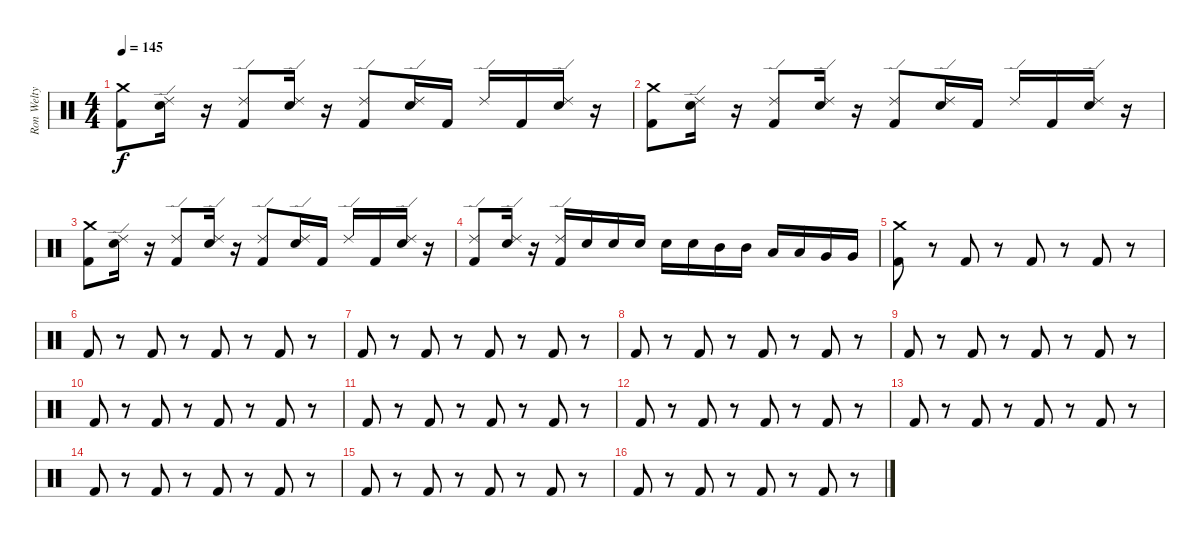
\track ("Ron Welty" "Ron Welty") {instrument percussion}
\staff {score}
\articulation defaults
\ts (4 4)
\tempo 145
\clef neutral
\ks c
("Kick (hit) 2" "Crash medium (hit)").8{dy f} ("Snare (hit) 2" "Ride (edge) 2").16 r.16 ("Kick (hit) 2" "Ride (edge) 2").8 ("Snare (hit) 2" "Ride (edge) 2").16 r.16 ("Kick (hit) 2" "Ride (edge) 2").8 ("Snare (hit) 2" "Ride (edge) 2").16 "Kick (hit) 2".16 "Ride (edge) 2".16 "Kick (hit) 2".16 ("Snare (hit) 2" "Ride (edge) 2").16 r.16 |
("Kick (hit) 2" "Crash medium (hit)").8 ("Snare (hit) 2" "Ride (edge) 2").16 r.16 ("Kick (hit) 2" "Ride (edge) 2").8 ("Snare (hit) 2" "Ride (edge) 2").16 r.16 ("Kick (hit) 2" "Ride (edge) 2").8 ("Snare (hit) 2" "Ride (edge) 2").16 "Kick (hit) 2".16 "Ride (edge) 2".16 "Kick (hit) 2".16 ("Snare (hit) 2" "Ride (edge) 2").16 r.16 |
("Kick (hit) 2" "Crash medium (hit)").8 ("Snare (hit) 2" "Ride (edge) 2").16 r.16 ("Kick (hit) 2" "Ride (edge) 2").8 ("Snare (hit) 2" "Ride (edge) 2").16 r.16 ("Kick (hit) 2" "Ride (edge) 2").8 ("Snare (hit) 2" "Ride (edge) 2").16 "Kick (hit) 2".16 "Ride (edge) 2".16 "Kick (hit) 2".16 ("Snare (hit) 2" "Ride (edge) 2").16 r.16 |
("Kick (hit) 2" "Ride (edge) 2").8 ("Snare (hit) 2" "Ride (edge) 2").16 r.16 ("Kick (hit) 2" "Ride (edge) 2").16 "Snare (hit) 2".16 "Snare (hit) 2".16 "Snare (hit) 2".16 "Snare (hit) 2".16 "Snare (hit) 2".16 "Mid Tom (hit)".16 "Mid Tom (hit)".16 "Low Tom (hit)".16 "Low Tom (hit)".16 "Very Low Tom (hit)".16 "Very Low Tom (hit)".16 |
("Kick (hit) 2" "Crash medium (hit)").8 r.8 "Kick (hit) 2".8 r.8 "Kick (hit) 2".8 r.8 "Kick (hit) 2".8 r.8 |
"Kick (hit) 2".8 r.8 "Kick (hit) 2".8 r.8 "Kick (hit) 2".8 r.8 "Kick (hit) 2".8 r.8 |
"Kick (hit) 2".8 r.8 "Kick (hit) 2".8 r.8 "Kick (hit) 2".8 r.8 "Kick (hit) 2".8 r.8 |
"Kick (hit) 2".8 r.8 "Kick (hit) 2".8 r.8 "Kick (hit) 2".8 r.8 "Kick (hit) 2".8 r.8 |
"Kick (hit) 2".8 r.8 "Kick (hit) 2".8 r.8 "Kick (hit) 2".8 r.8 "Kick (hit) 2".8 r.8 |
"Kick (hit) 2".8 r.8 "Kick (hit) 2".8 r.8 "Kick (hit) 2".8 r.8 "Kick (hit) 2".8 r.8 |
"Kick (hit) 2".8 r.8 "Kick (hit) 2".8 r.8 "Kick (hit) 2".8 r.8 "Kick (hit) 2".8 r.8 |
"Kick (hit) 2".8 r.8 "Kick (hit) 2".8 r.8 "Kick (hit) 2".8 r.8 "Kick (hit) 2".8 r.8 |
"Kick (hit) 2".8 r.8 "Kick (hit) 2".8 r.8 "Kick (hit) 2".8 r.8 "Kick (hit) 2".8 r.8 |
"Kick (hit) 2".8 r.8 "Kick (hit) 2".8 r.8 "Kick (hit) 2".8 r.8 "Kick (hit) 2".8 r.8 |
"Kick (hit) 2".8 r.8 "Kick (hit) 2".8 r.8 "Kick (hit) 2".8 r.8 "Kick (hit) 2".8 r.8 |
"Kick (hit) 2".8 r.8 "Kick (hit) 2".8 r.8 "Kick (hit) 2".8 r.8 "Kick (hit) 2".8 r.8
